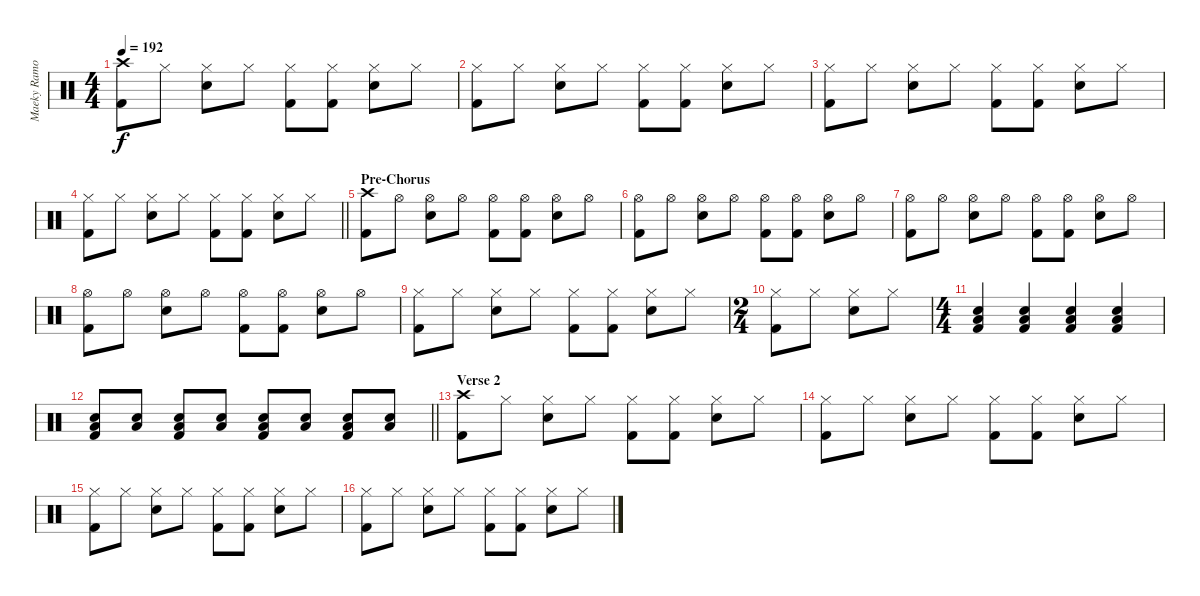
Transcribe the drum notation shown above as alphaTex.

\track ("Maeky Ramone" "Maeky Ramo") {instrument percussion}
\staff {score}
\articulation defaults
\ts (4 4)
\tempo 192
\clef neutral
\ks c
("Crash high (hit)" "Kick (hit) 2").8{dy f} "Hi-Hat (closed)".8 ("Hi-Hat (closed)" "Snare (hit) 2").8 "Hi-Hat (closed)".8 ("Hi-Hat (closed)" "Kick (hit) 2").8 ("Hi-Hat (closed)" "Kick (hit) 2").8 ("Hi-Hat (closed)" "Snare (hit) 2").8 "Hi-Hat (closed)".8 |
("Hi-Hat (closed)" "Kick (hit) 2").8 "Hi-Hat (closed)".8 ("Hi-Hat (closed)" "Snare (hit) 2").8 "Hi-Hat (closed)".8 ("Hi-Hat (closed)" "Kick (hit) 2").8 ("Hi-Hat (closed)" "Kick (hit) 2").8 ("Hi-Hat (closed)" "Snare (hit) 2").8 "Hi-Hat (closed)".8 |
("Hi-Hat (closed)" "Kick (hit) 2").8 "Hi-Hat (closed)".8 ("Hi-Hat (closed)" "Snare (hit) 2").8 "Hi-Hat (closed)".8 ("Hi-Hat (closed)" "Kick (hit) 2").8 ("Hi-Hat (closed)" "Kick (hit) 2").8 ("Hi-Hat (closed)" "Snare (hit) 2").8 "Hi-Hat (closed)".8 |
\barLineRight lightlight
("Hi-Hat (closed)" "Kick (hit) 2").8 "Hi-Hat (closed)".8 ("Hi-Hat (closed)" "Snare (hit) 2").8 "Hi-Hat (closed)".8 ("Hi-Hat (closed)" "Kick (hit) 2").8 ("Hi-Hat (closed)" "Kick (hit) 2").8 ("Hi-Hat (closed)" "Snare (hit) 2").8 "Hi-Hat (closed)".8 |
\section ("" "Pre-Chorus")
("Crash high (hit)" "Kick (hit) 2").8 "Hi-Hat (open)".8 ("Hi-Hat (open)" "Snare (hit) 2").8 "Hi-Hat (open)".8 ("Hi-Hat (open)" "Kick (hit) 2").8 ("Hi-Hat (open)" "Kick (hit) 2").8 ("Hi-Hat (open)" "Snare (hit) 2").8 "Hi-Hat (open)".8 |
("Hi-Hat (open)" "Kick (hit) 2").8 "Hi-Hat (open)".8 ("Hi-Hat (open)" "Snare (hit) 2").8 "Hi-Hat (open)".8 ("Hi-Hat (open)" "Kick (hit) 2").8 ("Hi-Hat (open)" "Kick (hit) 2").8 ("Hi-Hat (open)" "Snare (hit) 2").8 "Hi-Hat (open)".8 |
("Hi-Hat (open)" "Kick (hit) 2").8 "Hi-Hat (open)".8 ("Hi-Hat (open)" "Snare (hit) 2").8 "Hi-Hat (open)".8 ("Hi-Hat (open)" "Kick (hit) 2").8 ("Hi-Hat (open)" "Kick (hit) 2").8 ("Hi-Hat (open)" "Snare (hit) 2").8 "Hi-Hat (open)".8 |
("Hi-Hat (open)" "Kick (hit) 2").8 "Hi-Hat (open)".8 ("Hi-Hat (open)" "Snare (hit) 2").8 "Hi-Hat (open)".8 ("Hi-Hat (open)" "Kick (hit) 2").8 ("Hi-Hat (open)" "Kick (hit) 2").8 ("Hi-Hat (open)" "Snare (hit) 2").8 "Hi-Hat (open)".8 |
("Hi-Hat (closed)" "Kick (hit) 2").8 "Hi-Hat (closed)".8 ("Hi-Hat (closed)" "Snare (hit) 2").8 "Hi-Hat (closed)".8 ("Hi-Hat (closed)" "Kick (hit) 2").8 ("Hi-Hat (closed)" "Kick (hit) 2").8 ("Hi-Hat (closed)" "Snare (hit) 2").8 "Hi-Hat (closed)".8 |
\ts (2 4)
("Hi-Hat (closed)" "Kick (hit) 2").8 "Hi-Hat (closed)".8 ("Hi-Hat (closed)" "Snare (hit) 2").8 "Hi-Hat (closed)".8 |
\ts (4 4)
("Snare (hit) 2" "Kick (hit) 2" "Low Floor Tom (hit)").4 ("Snare (hit) 2" "Kick (hit) 2" "Low Floor Tom (hit)").4 ("Snare (hit) 2" "Kick (hit) 2" "Low Floor Tom (hit)").4 ("Snare (hit) 2" "Kick (hit) 2" "Low Floor Tom (hit)").4 |
\barLineRight lightlight
("Snare (hit) 2" "Kick (hit) 2" "Low Floor Tom (hit)").8 ("Snare (hit) 2" "Low Floor Tom (hit)").8 ("Snare (hit) 2" "Kick (hit) 2" "Low Floor Tom (hit)").8 ("Snare (hit) 2" "Low Floor Tom (hit)").8 ("Snare (hit) 2" "Kick (hit) 2" "Low Floor Tom (hit)").8 ("Snare (hit) 2" "Low Floor Tom (hit)").8 ("Snare (hit) 2" "Kick (hit) 2" "Low Floor Tom (hit)").8 ("Snare (hit) 2" "Low Floor Tom (hit)").8 |
\section ("" "Verse 2")
("Crash high (hit)" "Kick (hit) 2").8 "Hi-Hat (closed)".8 ("Hi-Hat (closed)" "Snare (hit) 2").8 "Hi-Hat (closed)".8 ("Hi-Hat (closed)" "Kick (hit) 2").8 ("Hi-Hat (closed)" "Kick (hit) 2").8 ("Hi-Hat (closed)" "Snare (hit) 2").8 "Hi-Hat (closed)".8 |
("Hi-Hat (closed)" "Kick (hit) 2").8 "Hi-Hat (closed)".8 ("Hi-Hat (closed)" "Snare (hit) 2").8 "Hi-Hat (closed)".8 ("Hi-Hat (closed)" "Kick (hit) 2").8 ("Hi-Hat (closed)" "Kick (hit) 2").8 ("Hi-Hat (closed)" "Snare (hit) 2").8 "Hi-Hat (closed)".8 |
("Hi-Hat (closed)" "Kick (hit) 2").8 "Hi-Hat (closed)".8 ("Hi-Hat (closed)" "Snare (hit) 2").8 "Hi-Hat (closed)".8 ("Hi-Hat (closed)" "Kick (hit) 2").8 ("Hi-Hat (closed)" "Kick (hit) 2").8 ("Hi-Hat (closed)" "Snare (hit) 2").8 "Hi-Hat (closed)".8 |
("Hi-Hat (closed)" "Kick (hit) 2").8 "Hi-Hat (closed)".8 ("Hi-Hat (closed)" "Snare (hit) 2").8 "Hi-Hat (closed)".8 ("Hi-Hat (closed)" "Kick (hit) 2").8 ("Hi-Hat (closed)" "Kick (hit) 2").8 ("Hi-Hat (closed)" "Snare (hit) 2").8 "Hi-Hat (closed)".8
